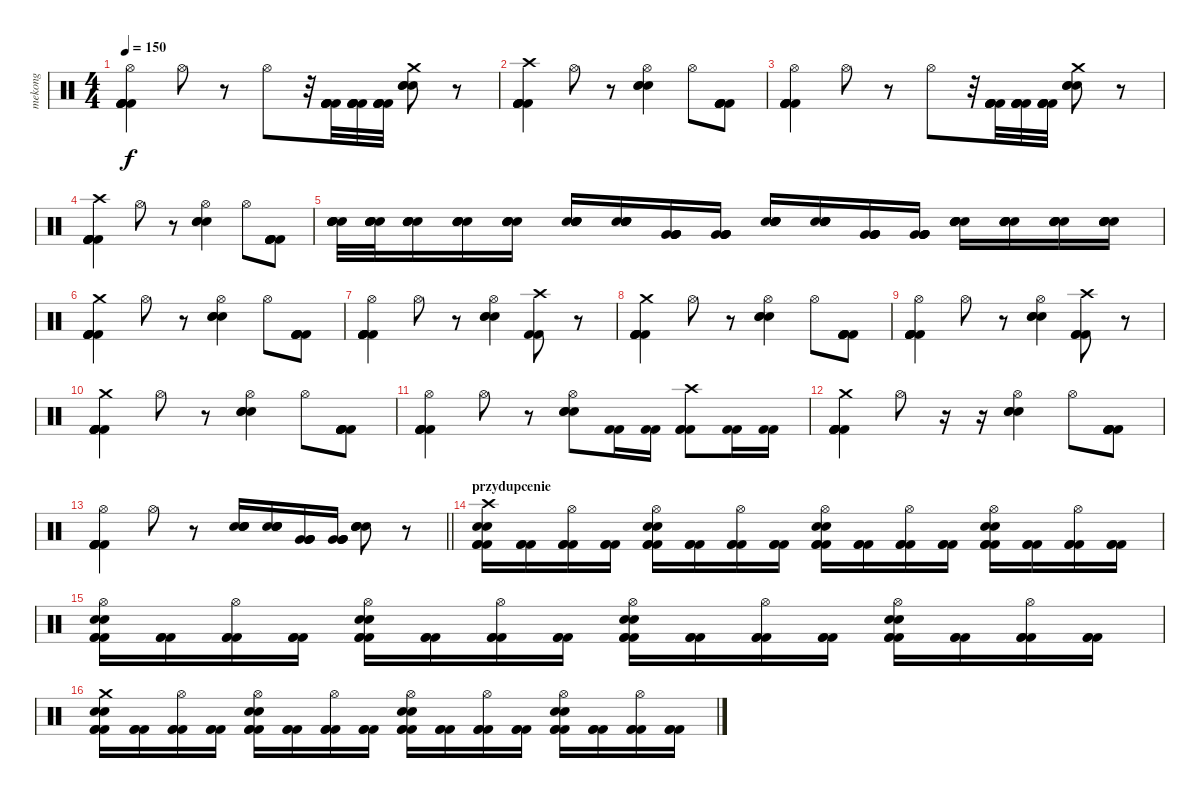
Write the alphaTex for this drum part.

\track ("mekong" "mekong") {instrument percussion}
\staff {score}
\articulation defaults
\ts (4 4)
\tempo 150
\clef neutral
\ks c
("Hi-Hat (open)" "Kick (hit) 2" "Kick (hit) 2" "Kick (hit) 2" "Kick (hit) 2" "Kick (hit) 2").4{dy f} "Hi-Hat (open)".8 r.8 "Hi-Hat (open)".8 r.32 ("Kick (hit) 2" "Kick (hit) 2" "Kick (hit) 2" "Kick (hit) 2" "Kick (hit) 2").32 ("Kick (hit) 2" "Kick (hit) 2" "Kick (hit) 2" "Kick (hit) 2" "Kick (hit) 2").32 ("Kick (hit) 2" "Kick (hit) 2" "Kick (hit) 2" "Kick (hit) 2" "Kick (hit) 2").32 ("Crash medium (hit)" "Electric Snare (hit)" "Electric Snare (hit)" "Electric Snare (hit)").8 r.8 |
("Crash high (hit)" "Kick (hit) 2" "Kick (hit) 2" "Kick (hit) 2" "Kick (hit) 2" "Kick (hit) 2").4 "Hi-Hat (open)".8 r.8 ("Hi-Hat (open)" "Electric Snare (hit)" "Electric Snare (hit)" "Electric Snare (hit)").4 "Hi-Hat (open)".8 ("Kick (hit) 2" "Kick (hit) 2" "Kick (hit) 2" "Kick (hit) 2" "Kick (hit) 2").8 |
("Hi-Hat (open)" "Kick (hit) 2" "Kick (hit) 2" "Kick (hit) 2" "Kick (hit) 2" "Kick (hit) 2").4 "Hi-Hat (open)".8 r.8 "Hi-Hat (open)".8 r.32 ("Kick (hit) 2" "Kick (hit) 2" "Kick (hit) 2" "Kick (hit) 2" "Kick (hit) 2").32 ("Kick (hit) 2" "Kick (hit) 2" "Kick (hit) 2" "Kick (hit) 2" "Kick (hit) 2").32 ("Kick (hit) 2" "Kick (hit) 2" "Kick (hit) 2" "Kick (hit) 2" "Kick (hit) 2").32 ("Crash medium (hit)" "Electric Snare (hit)" "Electric Snare (hit)" "Electric Snare (hit)").8 r.8 |
("Crash high (hit)" "Kick (hit) 2" "Kick (hit) 2" "Kick (hit) 2" "Kick (hit) 2" "Kick (hit) 2").4 "Hi-Hat (open)".8 r.8 ("Hi-Hat (open)" "Electric Snare (hit)" "Electric Snare (hit)" "Electric Snare (hit)").4 "Hi-Hat (open)".8 ("Kick (hit) 2" "Kick (hit) 2" "Kick (hit) 2" "Kick (hit) 2" "Kick (hit) 2").8 |
("Electric Snare (hit)" "Electric Snare (hit)" "Electric Snare (hit)" "Electric Snare (hit)" "Electric Snare (hit)").32 ("Electric Snare (hit)" "Electric Snare (hit)" "Electric Snare (hit)" "Electric Snare (hit)" "Electric Snare (hit)").32 ("Electric Snare (hit)" "Electric Snare (hit)" "Electric Snare (hit)" "Electric Snare (hit)" "Electric Snare (hit)").16 ("Electric Snare (hit)" "Electric Snare (hit)" "Electric Snare (hit)" "Electric Snare (hit)" "Electric Snare (hit)").16 ("Electric Snare (hit)" "Electric Snare (hit)" "Electric Snare (hit)" "Electric Snare (hit)" "Electric Snare (hit)").16 ("Electric Snare (hit)" "Electric Snare (hit)" "Electric Snare (hit)" "Electric Snare (hit)" "Electric Snare (hit)").16 ("Electric Snare (hit)" "Electric Snare (hit)" "Electric Snare (hit)" "Electric Snare (hit)" "Electric Snare (hit)").16 ("Very Low Tom (hit)" "Very Low Tom (hit)" "Very Low Tom (hit)" "Very Low Tom (hit)" "Very Low Tom (hit)").16 ("Very Low Tom (hit)" "Very Low Tom (hit)" "Very Low Tom (hit)" "Very Low Tom (hit)" "Very Low Tom (hit)").16 ("Electric Snare (hit)" "Electric Snare (hit)" "Electric Snare (hit)" "Electric Snare (hit)" "Electric Snare (hit)").16 ("Electric Snare (hit)" "Electric Snare (hit)" "Electric Snare (hit)" "Electric Snare (hit)" "Electric Snare (hit)").16 ("Very Low Tom (hit)" "Very Low Tom (hit)" "Very Low Tom (hit)" "Very Low Tom (hit)" "Very Low Tom (hit)").16 ("Very Low Tom (hit)" "Very Low Tom (hit)" "Very Low Tom (hit)" "Very Low Tom (hit)" "Very Low Tom (hit)").16 ("Electric Snare (hit)" "Electric Snare (hit)" "Electric Snare (hit)" "Electric Snare (hit)" "Electric Snare (hit)").16 ("Electric Snare (hit)" "Electric Snare (hit)" "Electric Snare (hit)" "Electric Snare (hit)" "Electric Snare (hit)").16 ("Electric Snare (hit)" "Electric Snare (hit)" "Electric Snare (hit)" "Electric Snare (hit)" "Electric Snare (hit)").16 ("Electric Snare (hit)" "Electric Snare (hit)" "Electric Snare (hit)" "Electric Snare (hit)" "Electric Snare (hit)").16 |
("Crash medium (hit)" "Kick (hit) 2" "Kick (hit) 2" "Kick (hit) 2" "Kick (hit) 2" "Kick (hit) 2").4 "Hi-Hat (open)".8 r.8 ("Hi-Hat (open)" "Electric Snare (hit)" "Electric Snare (hit)" "Electric Snare (hit)").4 "Hi-Hat (open)".8 ("Kick (hit) 2" "Kick (hit) 2" "Kick (hit) 2" "Kick (hit) 2" "Kick (hit) 2").8 |
("Hi-Hat (open)" "Kick (hit) 2" "Kick (hit) 2" "Kick (hit) 2" "Kick (hit) 2" "Kick (hit) 2").4 "Hi-Hat (open)".8 r.8 ("Hi-Hat (open)" "Electric Snare (hit)" "Electric Snare (hit)" "Electric Snare (hit)").4 ("Crash high (hit)" "Kick (hit) 2" "Kick (hit) 2").8 r.8 |
("Crash medium (hit)" "Kick (hit) 2" "Kick (hit) 2" "Kick (hit) 2" "Kick (hit) 2" "Kick (hit) 2").4 "Hi-Hat (open)".8 r.8 ("Hi-Hat (open)" "Electric Snare (hit)" "Electric Snare (hit)" "Electric Snare (hit)").4 "Hi-Hat (open)".8 ("Kick (hit) 2" "Kick (hit) 2" "Kick (hit) 2" "Kick (hit) 2" "Kick (hit) 2").8 |
("Hi-Hat (open)" "Kick (hit) 2" "Kick (hit) 2" "Kick (hit) 2" "Kick (hit) 2" "Kick (hit) 2").4 "Hi-Hat (open)".8 r.8 ("Hi-Hat (open)" "Electric Snare (hit)" "Electric Snare (hit)" "Electric Snare (hit)").4 ("Crash high (hit)" "Kick (hit) 2" "Kick (hit) 2" "Kick (hit) 2").8 r.8 |
("Crash medium (hit)" "Kick (hit) 2" "Kick (hit) 2" "Kick (hit) 2" "Kick (hit) 2" "Kick (hit) 2").4 "Hi-Hat (open)".8 r.8 ("Hi-Hat (open)" "Electric Snare (hit)" "Electric Snare (hit)" "Electric Snare (hit)").4 "Hi-Hat (open)".8 ("Kick (hit) 2" "Kick (hit) 2" "Kick (hit) 2" "Kick (hit) 2" "Kick (hit) 2").8 |
("Hi-Hat (open)" "Kick (hit) 2" "Kick (hit) 2" "Kick (hit) 2" "Kick (hit) 2" "Kick (hit) 2").4 "Hi-Hat (open)".8 r.8 ("Hi-Hat (open)" "Electric Snare (hit)" "Electric Snare (hit)" "Electric Snare (hit)").8 ("Kick (hit) 2" "Kick (hit) 2").16 ("Kick (hit) 2" "Kick (hit) 2").16 ("Crash high (hit)" "Kick (hit) 2" "Kick (hit) 2" "Kick (hit) 2").8 ("Kick (hit) 2" "Kick (hit) 2").16 ("Kick (hit) 2" "Kick (hit) 2").16 |
("Crash medium (hit)" "Kick (hit) 2" "Kick (hit) 2" "Kick (hit) 2" "Kick (hit) 2" "Kick (hit) 2").4 "Hi-Hat (open)".8 r.16 r.16 ("Hi-Hat (open)" "Electric Snare (hit)" "Electric Snare (hit)" "Electric Snare (hit)").4 "Hi-Hat (open)".8 ("Kick (hit) 2" "Kick (hit) 2" "Kick (hit) 2" "Kick (hit) 2" "Kick (hit) 2").8 |
\barLineRight lightlight
("Hi-Hat (open)" "Kick (hit) 2" "Kick (hit) 2" "Kick (hit) 2" "Kick (hit) 2" "Kick (hit) 2").4 "Hi-Hat (open)".8 r.8 ("Electric Snare (hit)" "Electric Snare (hit)" "Electric Snare (hit)" "Electric Snare (hit)").16 ("Electric Snare (hit)" "Electric Snare (hit)" "Electric Snare (hit)" "Electric Snare (hit)").16 ("Very Low Tom (hit)" "Very Low Tom (hit)" "Very Low Tom (hit)" "Very Low Tom (hit)").16 ("Very Low Tom (hit)" "Very Low Tom (hit)" "Very Low Tom (hit)" "Very Low Tom (hit)").16 ("Electric Snare (hit)" "Electric Snare (hit)" "Electric Snare (hit)" "Electric Snare (hit)").8 r.8 |
\section ("" "przydupcenie")
("Electric Snare (hit)" "Electric Snare (hit)" "Crash high (hit)" "Kick (hit) 2" "Kick (hit) 2" "Kick (hit) 2").16 ("Kick (hit) 2" "Kick (hit) 2" "Kick (hit) 2").16 ("Hi-Hat (open)" "Kick (hit) 2" "Kick (hit) 2" "Kick (hit) 2").16 ("Kick (hit) 2" "Kick (hit) 2" "Kick (hit) 2").16 ("Electric Snare (hit)" "Electric Snare (hit)" "Hi-Hat (open)" "Kick (hit) 2" "Kick (hit) 2" "Kick (hit) 2").16 ("Kick (hit) 2" "Kick (hit) 2" "Kick (hit) 2").16 ("Hi-Hat (open)" "Kick (hit) 2" "Kick (hit) 2" "Kick (hit) 2").16 ("Kick (hit) 2" "Kick (hit) 2" "Kick (hit) 2").16 ("Electric Snare (hit)" "Electric Snare (hit)" "Hi-Hat (open)" "Kick (hit) 2" "Kick (hit) 2" "Kick (hit) 2").16 ("Kick (hit) 2" "Kick (hit) 2" "Kick (hit) 2").16 ("Hi-Hat (open)" "Kick (hit) 2" "Kick (hit) 2" "Kick (hit) 2").16 ("Kick (hit) 2" "Kick (hit) 2" "Kick (hit) 2").16 ("Electric Snare (hit)" "Electric Snare (hit)" "Hi-Hat (open)" "Kick (hit) 2" "Kick (hit) 2" "Kick (hit) 2").16 ("Kick (hit) 2" "Kick (hit) 2" "Kick (hit) 2").16 ("Hi-Hat (open)" "Kick (hit) 2" "Kick (hit) 2" "Kick (hit) 2").16 ("Kick (hit) 2" "Kick (hit) 2" "Kick (hit) 2").16 |
("Electric Snare (hit)" "Electric Snare (hit)" "Hi-Hat (open)" "Kick (hit) 2" "Kick (hit) 2" "Kick (hit) 2").16 ("Kick (hit) 2" "Kick (hit) 2" "Kick (hit) 2").16 ("Hi-Hat (open)" "Kick (hit) 2" "Kick (hit) 2" "Kick (hit) 2").16 ("Kick (hit) 2" "Kick (hit) 2" "Kick (hit) 2").16 ("Electric Snare (hit)" "Electric Snare (hit)" "Hi-Hat (open)" "Kick (hit) 2" "Kick (hit) 2" "Kick (hit) 2").16 ("Kick (hit) 2" "Kick (hit) 2" "Kick (hit) 2").16 ("Hi-Hat (open)" "Kick (hit) 2" "Kick (hit) 2" "Kick (hit) 2").16 ("Kick (hit) 2" "Kick (hit) 2" "Kick (hit) 2").16 ("Electric Snare (hit)" "Electric Snare (hit)" "Hi-Hat (open)" "Kick (hit) 2" "Kick (hit) 2" "Kick (hit) 2").16 ("Kick (hit) 2" "Kick (hit) 2" "Kick (hit) 2").16 ("Hi-Hat (open)" "Kick (hit) 2" "Kick (hit) 2" "Kick (hit) 2").16 ("Kick (hit) 2" "Kick (hit) 2" "Kick (hit) 2").16 ("Electric Snare (hit)" "Electric Snare (hit)" "Hi-Hat (open)" "Kick (hit) 2" "Kick (hit) 2" "Kick (hit) 2").16 ("Kick (hit) 2" "Kick (hit) 2" "Kick (hit) 2").16 ("Hi-Hat (open)" "Kick (hit) 2" "Kick (hit) 2" "Kick (hit) 2").16 ("Kick (hit) 2" "Kick (hit) 2" "Kick (hit) 2").16 |
("Electric Snare (hit)" "Electric Snare (hit)" "Crash medium (hit)" "Kick (hit) 2" "Kick (hit) 2" "Kick (hit) 2").16 ("Kick (hit) 2" "Kick (hit) 2" "Kick (hit) 2").16 ("Hi-Hat (open)" "Kick (hit) 2" "Kick (hit) 2" "Kick (hit) 2").16 ("Kick (hit) 2" "Kick (hit) 2" "Kick (hit) 2").16 ("Electric Snare (hit)" "Electric Snare (hit)" "Hi-Hat (open)" "Kick (hit) 2" "Kick (hit) 2" "Kick (hit) 2").16 ("Kick (hit) 2" "Kick (hit) 2" "Kick (hit) 2").16 ("Hi-Hat (open)" "Kick (hit) 2" "Kick (hit) 2" "Kick (hit) 2").16 ("Kick (hit) 2" "Kick (hit) 2" "Kick (hit) 2").16 ("Electric Snare (hit)" "Electric Snare (hit)" "Hi-Hat (open)" "Kick (hit) 2" "Kick (hit) 2" "Kick (hit) 2").16 ("Kick (hit) 2" "Kick (hit) 2" "Kick (hit) 2").16 ("Hi-Hat (open)" "Kick (hit) 2" "Kick (hit) 2" "Kick (hit) 2").16 ("Kick (hit) 2" "Kick (hit) 2" "Kick (hit) 2").16 ("Electric Snare (hit)" "Electric Snare (hit)" "Hi-Hat (open)" "Kick (hit) 2" "Kick (hit) 2" "Kick (hit) 2").16 ("Kick (hit) 2" "Kick (hit) 2" "Kick (hit) 2").16 ("Hi-Hat (open)" "Kick (hit) 2" "Kick (hit) 2" "Kick (hit) 2").16 ("Kick (hit) 2" "Kick (hit) 2" "Kick (hit) 2").16
